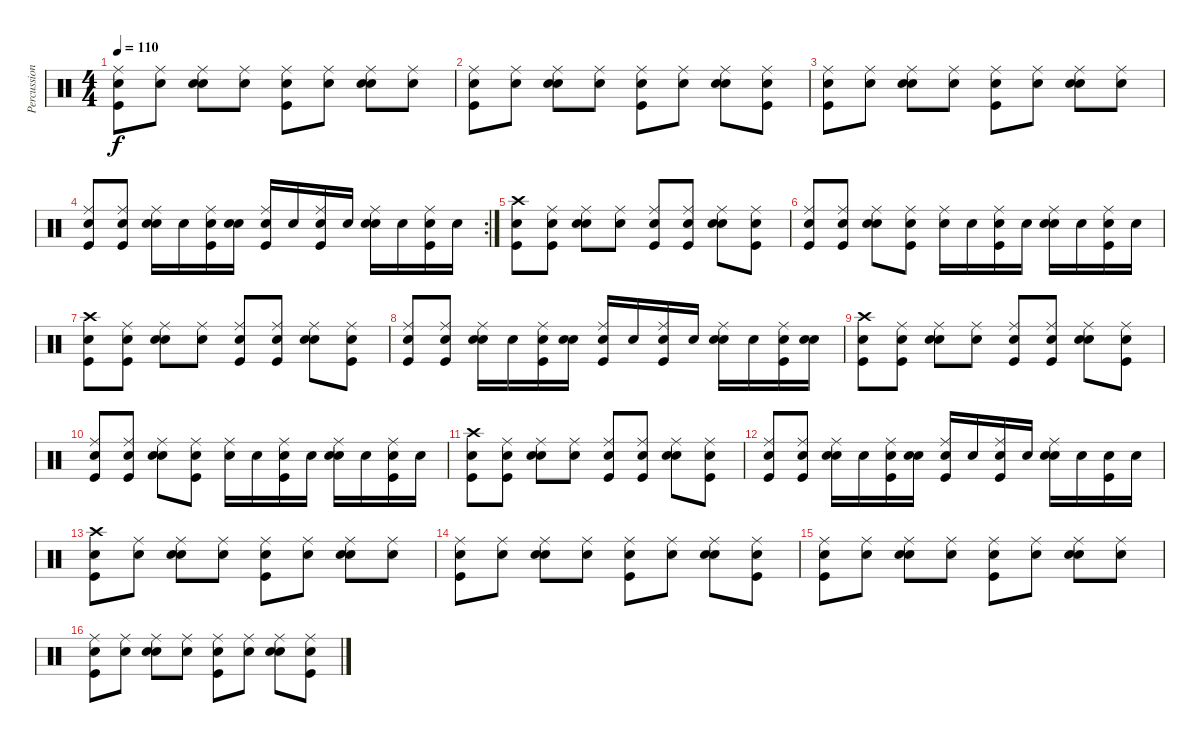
\track ("Percussion" "Percussion") {instrument percussion}
\staff {score}
\articulation defaults
\ts (4 4)
\tempo 110
\clef neutral
\ks c
("Snare (hit)" "Ride (middle)" "Kick (hit)").8{dy f} ("Snare (hit)" "Ride (middle)").8 ("Snare (hit)" "Ride (middle)" "Snare (hit) 2").8 ("Snare (hit)" "Ride (middle)").8 ("Snare (hit)" "Ride (middle)" "Kick (hit)").8 ("Snare (hit)" "Ride (middle)").8 ("Snare (hit)" "Ride (middle)" "Snare (hit) 2").8 ("Snare (hit)" "Ride (middle)").8 |
("Snare (hit)" "Ride (middle)" "Kick (hit)").8 ("Snare (hit)" "Ride (middle)").8 ("Snare (hit)" "Ride (middle)" "Snare (hit) 2").8 ("Snare (hit)" "Ride (middle)").8 ("Snare (hit)" "Ride (middle)" "Kick (hit)").8 ("Snare (hit)" "Ride (middle)").8 ("Snare (hit)" "Ride (middle)" "Snare (hit) 2").8 ("Snare (hit)" "Ride (middle)" "Kick (hit)").8 |
("Snare (hit)" "Ride (middle)" "Kick (hit)").8 ("Snare (hit)" "Ride (middle)").8 ("Snare (hit)" "Ride (middle)" "Snare (hit) 2").8 ("Snare (hit)" "Ride (middle)").8 ("Snare (hit)" "Ride (middle)" "Kick (hit)").8 ("Snare (hit)" "Ride (middle)").8 ("Snare (hit)" "Ride (middle)" "Snare (hit) 2").8 ("Snare (hit)" "Ride (middle)").8 |
\rc 2
("Snare (hit)" "Ride (middle)" "Kick (hit)").8 ("Snare (hit)" "Ride (middle)" "Kick (hit)").8 ("Snare (hit)" "Ride (middle)" "Snare (hit) 2").16 "Snare (hit)".16 ("Snare (hit)" "Ride (middle)" "Kick (hit)").16 ("Snare (hit)" "Snare (hit) 2").16 ("Snare (hit)" "Ride (middle)" "Kick (hit)").16 "Snare (hit)".16 ("Snare (hit)" "Ride (middle)" "Kick (hit)").16 "Snare (hit)".16 ("Snare (hit)" "Ride (middle)" "Snare (hit) 2").16 "Snare (hit)".16 ("Snare (hit)" "Ride (middle)" "Kick (hit)").16 "Snare (hit)".16 |
("Snare (hit)" "Crash high (hit)" "Kick (hit)").8 ("Snare (hit)" "Ride (middle)" "Kick (hit)").8 ("Snare (hit)" "Ride (middle)" "Snare (hit) 2").8 ("Snare (hit)" "Ride (middle)").8 ("Snare (hit)" "Ride (middle)" "Kick (hit)").8 ("Snare (hit)" "Ride (middle)" "Kick (hit)").8 ("Snare (hit)" "Ride (middle)" "Snare (hit) 2").8 ("Snare (hit)" "Ride (middle)" "Kick (hit)").8 |
("Snare (hit)" "Ride (middle)" "Kick (hit)").8 ("Snare (hit)" "Ride (middle)" "Kick (hit)").8 ("Snare (hit)" "Ride (middle)" "Snare (hit) 2").8 ("Snare (hit)" "Ride (middle)" "Kick (hit)").8 ("Snare (hit)" "Ride (middle)").16 "Snare (hit)".16 ("Snare (hit)" "Ride (middle)" "Kick (hit)").16 "Snare (hit)".16 ("Snare (hit)" "Ride (middle)" "Snare (hit) 2").16 "Snare (hit)".16 ("Snare (hit)" "Ride (middle)" "Kick (hit)").16 "Snare (hit)".16 |
("Snare (hit)" "Crash high (hit)" "Kick (hit)").8 ("Snare (hit)" "Ride (middle)" "Kick (hit)").8 ("Snare (hit)" "Ride (middle)" "Snare (hit) 2").8 ("Snare (hit)" "Ride (middle)").8 ("Snare (hit)" "Ride (middle)" "Kick (hit)").8 ("Snare (hit)" "Ride (middle)" "Kick (hit)").8 ("Snare (hit)" "Ride (middle)" "Snare (hit) 2").8 ("Snare (hit)" "Ride (middle)" "Kick (hit)").8 |
("Snare (hit)" "Ride (middle)" "Kick (hit)").8 ("Snare (hit)" "Ride (middle)" "Kick (hit)").8 ("Snare (hit)" "Ride (middle)" "Snare (hit) 2").16 "Snare (hit)".16 ("Snare (hit)" "Ride (middle)" "Kick (hit)").16 ("Snare (hit)" "Snare (hit) 2").16 ("Snare (hit)" "Ride (middle)" "Kick (hit)").16 "Snare (hit)".16 ("Snare (hit)" "Ride (middle)" "Kick (hit)").16 "Snare (hit)".16 ("Snare (hit)" "Ride (middle)" "Snare (hit) 2").16 "Snare (hit)".16 ("Snare (hit)" "Ride (middle)" "Kick (hit)").16 ("Snare (hit)" "Snare (hit) 2").16 |
("Snare (hit)" "Crash high (hit)" "Kick (hit)").8 ("Snare (hit)" "Ride (middle)" "Kick (hit)").8 ("Snare (hit)" "Ride (middle)" "Snare (hit) 2").8 ("Snare (hit)" "Ride (middle)").8 ("Snare (hit)" "Ride (middle)" "Kick (hit)").8 ("Snare (hit)" "Ride (middle)" "Kick (hit)").8 ("Snare (hit)" "Ride (middle)" "Snare (hit) 2").8 ("Snare (hit)" "Ride (middle)" "Kick (hit)").8 |
("Snare (hit)" "Ride (middle)" "Kick (hit)").8 ("Snare (hit)" "Ride (middle)" "Kick (hit)").8 ("Snare (hit)" "Ride (middle)" "Snare (hit) 2").8 ("Snare (hit)" "Ride (middle)" "Kick (hit)").8 ("Snare (hit)" "Ride (middle)").16 "Snare (hit)".16 ("Snare (hit)" "Ride (middle)" "Kick (hit)").16 "Snare (hit)".16 ("Snare (hit)" "Ride (middle)" "Snare (hit) 2").16 "Snare (hit)".16 ("Snare (hit)" "Ride (middle)" "Kick (hit)").16 "Snare (hit)".16 |
("Snare (hit)" "Crash high (hit)" "Kick (hit)").8 ("Snare (hit)" "Ride (middle)" "Kick (hit)").8 ("Snare (hit)" "Ride (middle)" "Snare (hit) 2").8 ("Snare (hit)" "Ride (middle)").8 ("Snare (hit)" "Ride (middle)" "Kick (hit)").8 ("Snare (hit)" "Ride (middle)" "Kick (hit)").8 ("Snare (hit)" "Ride (middle)" "Snare (hit) 2").8 ("Snare (hit)" "Ride (middle)" "Kick (hit)").8 |
("Snare (hit)" "Ride (middle)" "Kick (hit)").8 ("Snare (hit)" "Ride (middle)" "Kick (hit)").8 ("Snare (hit)" "Ride (middle)" "Snare (hit) 2").16 "Snare (hit)".16 ("Snare (hit)" "Ride (middle)" "Kick (hit)").16 ("Snare (hit)" "Snare (hit) 2").16 ("Snare (hit)" "Ride (middle)" "Kick (hit)").16 "Snare (hit)".16 ("Snare (hit)" "Ride (middle)" "Kick (hit)").16 "Snare (hit)".16 ("Snare (hit)" "Ride (middle)" "Snare (hit) 2").16 "Snare (hit)".16 ("Snare (hit)" "Kick (hit)").16 "Snare (hit)".16 |
("Snare (hit)" "Crash high (hit)" "Kick (hit)").8 ("Snare (hit)" "Ride (middle)").8 ("Snare (hit)" "Ride (middle)" "Snare (hit) 2").8 ("Snare (hit)" "Ride (middle)").8 ("Snare (hit)" "Ride (middle)" "Kick (hit)").8 ("Snare (hit)" "Ride (middle)").8 ("Snare (hit)" "Ride (middle)" "Snare (hit) 2").8 ("Snare (hit)" "Ride (middle)").8 |
("Snare (hit)" "Ride (middle)" "Kick (hit)").8 ("Snare (hit)" "Ride (middle)").8 ("Snare (hit)" "Ride (middle)" "Snare (hit) 2").8 ("Snare (hit)" "Ride (middle)").8 ("Snare (hit)" "Ride (middle)" "Kick (hit)").8 ("Snare (hit)" "Ride (middle)").8 ("Snare (hit)" "Ride (middle)" "Snare (hit) 2").8 ("Snare (hit)" "Ride (middle)" "Kick (hit)").8 |
("Snare (hit)" "Ride (middle)" "Kick (hit)").8 ("Snare (hit)" "Ride (middle)").8 ("Snare (hit)" "Ride (middle)" "Snare (hit) 2").8 ("Snare (hit)" "Ride (middle)").8 ("Snare (hit)" "Ride (middle)" "Kick (hit)").8 ("Snare (hit)" "Ride (middle)").8 ("Snare (hit)" "Ride (middle)" "Snare (hit) 2").8 ("Snare (hit)" "Ride (middle)").8 |
("Snare (hit)" "Ride (middle)" "Kick (hit)").8 ("Snare (hit)" "Ride (middle)").8 ("Snare (hit)" "Ride (middle)" "Snare (hit) 2").8 ("Snare (hit)" "Ride (middle)").8 ("Snare (hit)" "Ride (middle)" "Kick (hit)").8 ("Snare (hit)" "Ride (middle)").8 ("Snare (hit)" "Ride (middle)" "Snare (hit) 2").8 ("Snare (hit)" "Ride (middle)" "Kick (hit)").8
